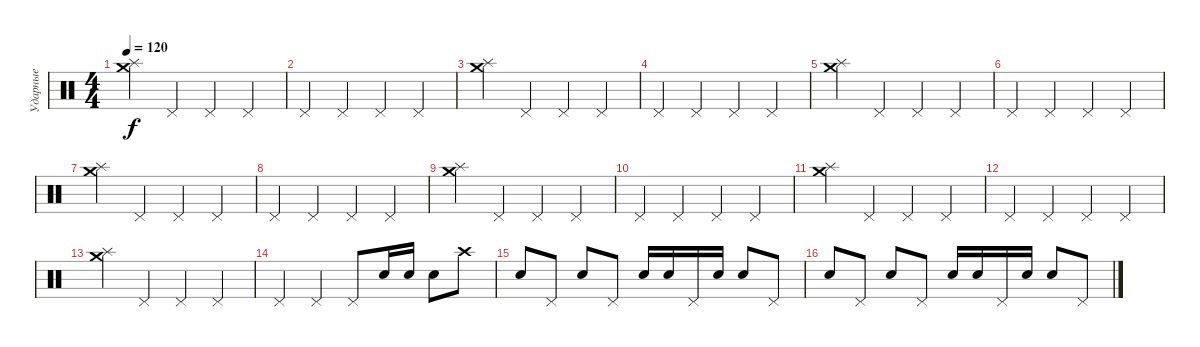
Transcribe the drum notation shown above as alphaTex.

\track ("Ударные" "Ударные") {instrument percussion}
\staff {score}
\articulation defaults
\ts (4 4)
\tempo 120
\clef neutral
\ks c
("Splash (hit)" "Crash medium (hit)").4{dy f} "Pedal Hi-Hat (hit)".4 "Pedal Hi-Hat (hit)".4 "Pedal Hi-Hat (hit)".4 |
"Pedal Hi-Hat (hit)".4 "Pedal Hi-Hat (hit)".4 "Pedal Hi-Hat (hit)".4 "Pedal Hi-Hat (hit)".4 |
("Splash (hit)" "Crash medium (hit)").4 "Pedal Hi-Hat (hit)".4 "Pedal Hi-Hat (hit)".4 "Pedal Hi-Hat (hit)".4 |
"Pedal Hi-Hat (hit)".4 "Pedal Hi-Hat (hit)".4 "Pedal Hi-Hat (hit)".4 "Pedal Hi-Hat (hit)".4 |
("Splash (hit)" "Crash medium (hit)").4 "Pedal Hi-Hat (hit)".4 "Pedal Hi-Hat (hit)".4 "Pedal Hi-Hat (hit)".4 |
"Pedal Hi-Hat (hit)".4 "Pedal Hi-Hat (hit)".4 "Pedal Hi-Hat (hit)".4 "Pedal Hi-Hat (hit)".4 |
("Splash (hit)" "Crash medium (hit)").4 "Pedal Hi-Hat (hit)".4 "Pedal Hi-Hat (hit)".4 "Pedal Hi-Hat (hit)".4 |
"Pedal Hi-Hat (hit)".4 "Pedal Hi-Hat (hit)".4 "Pedal Hi-Hat (hit)".4 "Pedal Hi-Hat (hit)".4 |
("Splash (hit)" "Crash medium (hit)").4 "Pedal Hi-Hat (hit)".4 "Pedal Hi-Hat (hit)".4 "Pedal Hi-Hat (hit)".4 |
"Pedal Hi-Hat (hit)".4 "Pedal Hi-Hat (hit)".4 "Pedal Hi-Hat (hit)".4 "Pedal Hi-Hat (hit)".4 |
("Splash (hit)" "Crash medium (hit)").4 "Pedal Hi-Hat (hit)".4 "Pedal Hi-Hat (hit)".4 "Pedal Hi-Hat (hit)".4 |
"Pedal Hi-Hat (hit)".4 "Pedal Hi-Hat (hit)".4 "Pedal Hi-Hat (hit)".4 "Pedal Hi-Hat (hit)".4 |
("Splash (hit)" "Crash medium (hit)").4 "Pedal Hi-Hat (hit)".4 "Pedal Hi-Hat (hit)".4 "Pedal Hi-Hat (hit)".4 |
"Pedal Hi-Hat (hit)".4 "Pedal Hi-Hat (hit)".4 "Pedal Hi-Hat (hit)".8 "Snare (hit) 2".16 "Snare (hit) 2".16 "Snare (hit) 2".8 "Crash high (hit)".8 |
"Snare (hit) 2".8 "Pedal Hi-Hat (hit)".8 "Snare (hit) 2".8 "Pedal Hi-Hat (hit)".8 "Snare (hit) 2".16 "Snare (hit) 2".16 "Pedal Hi-Hat (hit)".16 "Snare (hit) 2".16 "Snare (hit) 2".8 "Pedal Hi-Hat (hit)".8 |
"Snare (hit) 2".8 "Pedal Hi-Hat (hit)".8 "Snare (hit) 2".8 "Pedal Hi-Hat (hit)".8 "Snare (hit) 2".16 "Snare (hit) 2".16 "Pedal Hi-Hat (hit)".16 "Snare (hit) 2".16 "Snare (hit) 2".8 "Pedal Hi-Hat (hit)".8
